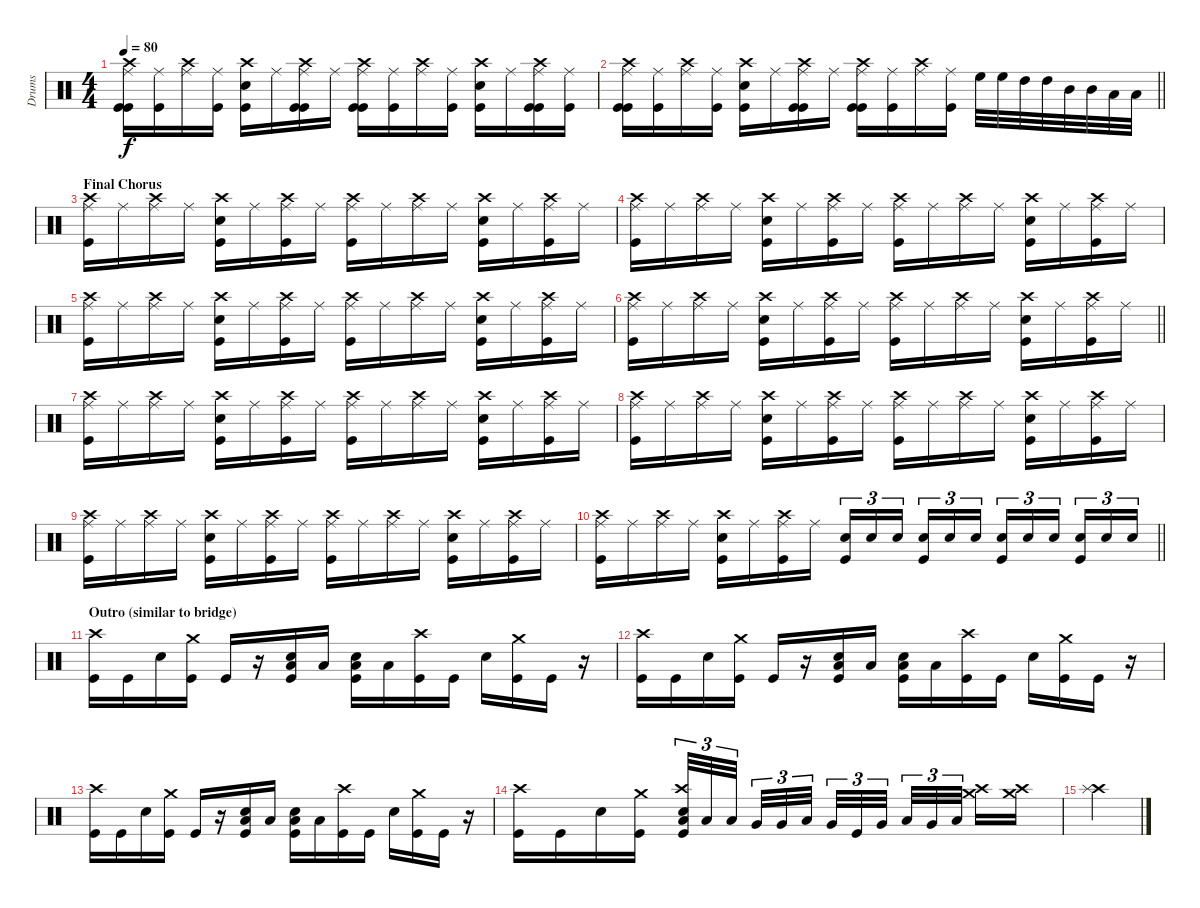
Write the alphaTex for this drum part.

\track ("Drums" "Drums") {instrument percussion}
\staff {score}
\articulation defaults
\ts (4 4)
\tempo 80
\clef neutral
\ks c
("Kick (hit)" "Ride (middle)" "Crash high (hit)" "Kick (hit)").16{dy f} ("Ride (middle)" "Kick (hit)").16 ("Ride (middle)" "Crash high (hit)").16 ("Ride (middle)" "Kick (hit)").16 ("Kick (hit)" "Crash high (hit)" "Snare (hit) 2").16 "Ride (middle)".16 ("Kick (hit)" "Ride (middle)" "Crash high (hit)" "Kick (hit)").16 "Ride (middle)".16 ("Kick (hit)" "Ride (middle)" "Crash high (hit)" "Kick (hit)").16 ("Ride (middle)" "Kick (hit)").16 ("Ride (middle)" "Crash high (hit)").16 ("Ride (middle)" "Kick (hit)").16 ("Kick (hit)" "Crash high (hit)" "Snare (hit) 2").16 "Ride (middle)".16 ("Kick (hit)" "Ride (middle)" "Crash high (hit)" "Kick (hit)").16 ("Ride (middle)" "Kick (hit)").16 |
\barLineRight lightlight
("Kick (hit)" "Ride (middle)" "Crash high (hit)" "Kick (hit)").16 ("Ride (middle)" "Kick (hit)").16 ("Ride (middle)" "Crash high (hit)").16 ("Ride (middle)" "Kick (hit)").16 ("Kick (hit)" "Crash high (hit)" "Snare (hit) 2").16 "Ride (middle)".16 ("Kick (hit)" "Ride (middle)" "Crash high (hit)" "Kick (hit)").16 "Ride (middle)".16 ("Kick (hit)" "Ride (middle)" "Crash high (hit)" "Kick (hit)").16 ("Ride (middle)" "Kick (hit)").16 ("Ride (middle)" "Crash high (hit)").16 ("Ride (middle)" "Kick (hit)").16 "High Floor Tom (hit)".32 "High Floor Tom (hit)".32 "High Tom (hit)".32 "High Tom (hit)".32 "Mid Tom (hit)".32 "Mid Tom (hit)".32 "Low Tom (hit)".32 "Low Tom (hit)".32 |
\section ("" "Final Chorus")
("Kick (hit)" "Ride (middle)" "Crash high (hit)").16 "Ride (middle)".16 ("Ride (middle)" "Crash high (hit)").16 "Ride (middle)".16 ("Kick (hit)" "Crash high (hit)" "Snare (hit) 2").16 "Ride (middle)".16 ("Kick (hit)" "Ride (middle)" "Crash high (hit)").16 "Ride (middle)".16 ("Kick (hit)" "Ride (middle)" "Crash high (hit)").16 "Ride (middle)".16 ("Ride (middle)" "Crash high (hit)").16 "Ride (middle)".16 ("Kick (hit)" "Crash high (hit)" "Snare (hit) 2").16 "Ride (middle)".16 ("Kick (hit)" "Ride (middle)" "Crash high (hit)").16 "Ride (middle)".16 |
("Kick (hit)" "Ride (middle)" "Crash high (hit)").16 "Ride (middle)".16 ("Ride (middle)" "Crash high (hit)").16 "Ride (middle)".16 ("Kick (hit)" "Crash high (hit)" "Snare (hit) 2").16 "Ride (middle)".16 ("Kick (hit)" "Ride (middle)" "Crash high (hit)").16 "Ride (middle)".16 ("Kick (hit)" "Ride (middle)" "Crash high (hit)").16 "Ride (middle)".16 ("Ride (middle)" "Crash high (hit)").16 "Ride (middle)".16 ("Kick (hit)" "Crash high (hit)" "Snare (hit) 2").16 "Ride (middle)".16 ("Kick (hit)" "Ride (middle)" "Crash high (hit)").16 "Ride (middle)".16 |
("Kick (hit)" "Ride (middle)" "Crash high (hit)").16 "Ride (middle)".16 ("Ride (middle)" "Crash high (hit)").16 "Ride (middle)".16 ("Kick (hit)" "Crash high (hit)" "Snare (hit) 2").16 "Ride (middle)".16 ("Kick (hit)" "Ride (middle)" "Crash high (hit)").16 "Ride (middle)".16 ("Kick (hit)" "Ride (middle)" "Crash high (hit)").16 "Ride (middle)".16 ("Ride (middle)" "Crash high (hit)").16 "Ride (middle)".16 ("Kick (hit)" "Crash high (hit)" "Snare (hit) 2").16 "Ride (middle)".16 ("Kick (hit)" "Ride (middle)" "Crash high (hit)").16 "Ride (middle)".16 |
\barLineRight lightlight
("Kick (hit)" "Ride (middle)" "Crash high (hit)").16 "Ride (middle)".16 ("Ride (middle)" "Crash high (hit)").16 "Ride (middle)".16 ("Kick (hit)" "Crash high (hit)" "Snare (hit) 2").16 "Ride (middle)".16 ("Kick (hit)" "Ride (middle)" "Crash high (hit)").16 "Ride (middle)".16 ("Kick (hit)" "Ride (middle)" "Crash high (hit)").16 "Ride (middle)".16 ("Ride (middle)" "Crash high (hit)").16 "Ride (middle)".16 ("Kick (hit)" "Crash high (hit)" "Snare (hit) 2").16 "Ride (middle)".16 ("Kick (hit)" "Ride (middle)" "Crash high (hit)").16 "Ride (middle)".16 |
("Kick (hit)" "Ride (middle)" "Crash high (hit)").16 "Ride (middle)".16 ("Ride (middle)" "Crash high (hit)").16 "Ride (middle)".16 ("Kick (hit)" "Crash high (hit)" "Snare (hit) 2").16 "Ride (middle)".16 ("Kick (hit)" "Ride (middle)" "Crash high (hit)").16 "Ride (middle)".16 ("Kick (hit)" "Ride (middle)" "Crash high (hit)").16 "Ride (middle)".16 ("Ride (middle)" "Crash high (hit)").16 "Ride (middle)".16 ("Kick (hit)" "Crash high (hit)" "Snare (hit) 2").16 "Ride (middle)".16 ("Kick (hit)" "Ride (middle)" "Crash high (hit)").16 "Ride (middle)".16 |
("Kick (hit)" "Ride (middle)" "Crash high (hit)").16 "Ride (middle)".16 ("Ride (middle)" "Crash high (hit)").16 "Ride (middle)".16 ("Kick (hit)" "Crash high (hit)" "Snare (hit) 2").16 "Ride (middle)".16 ("Kick (hit)" "Ride (middle)" "Crash high (hit)").16 "Ride (middle)".16 ("Kick (hit)" "Ride (middle)" "Crash high (hit)").16 "Ride (middle)".16 ("Ride (middle)" "Crash high (hit)").16 "Ride (middle)".16 ("Kick (hit)" "Crash high (hit)" "Snare (hit) 2").16 "Ride (middle)".16 ("Kick (hit)" "Ride (middle)" "Crash high (hit)").16 "Ride (middle)".16 |
("Kick (hit)" "Ride (middle)" "Crash high (hit)").16 "Ride (middle)".16 ("Ride (middle)" "Crash high (hit)").16 "Ride (middle)".16 ("Kick (hit)" "Crash high (hit)" "Snare (hit) 2").16 "Ride (middle)".16 ("Kick (hit)" "Ride (middle)" "Crash high (hit)").16 "Ride (middle)".16 ("Kick (hit)" "Ride (middle)" "Crash high (hit)").16 "Ride (middle)".16 ("Ride (middle)" "Crash high (hit)").16 "Ride (middle)".16 ("Kick (hit)" "Crash high (hit)" "Snare (hit) 2").16 "Ride (middle)".16 ("Kick (hit)" "Ride (middle)" "Crash high (hit)").16 "Ride (middle)".16 |
\barLineRight lightlight
("Kick (hit)" "Ride (middle)" "Crash high (hit)").16 "Ride (middle)".16 ("Ride (middle)" "Crash high (hit)").16 "Ride (middle)".16 ("Kick (hit)" "Crash high (hit)" "Snare (hit) 2").16 "Ride (middle)".16 ("Kick (hit)" "Ride (middle)" "Crash high (hit)").16 "Ride (middle)".16 ("Kick (hit)" "Snare (hit) 2").16{tu (3 2)} "Snare (hit) 2".16{tu (3 2)} "Snare (hit) 2".16{tu (3 2) beam splitsecondary} ("Kick (hit)" "Snare (hit) 2").16{tu (3 2)} "Snare (hit) 2".16{tu (3 2)} "Snare (hit) 2".16{tu (3 2)} ("Kick (hit)" "Snare (hit) 2").16{tu (3 2)} "Snare (hit) 2".16{tu (3 2)} "Snare (hit) 2".16{tu (3 2) beam splitsecondary} ("Kick (hit)" "Snare (hit) 2").16{tu (3 2)} "Snare (hit) 2".16{tu (3 2)} "Snare (hit) 2".16{tu (3 2)} |
\section ("" "Outro (similar to bridge)")
("Kick (hit)" "Crash high (hit)").16 "Kick (hit)".16 "Snare (hit) 2".16 ("Kick (hit)" "Crash medium (hit)").16 "Kick (hit)".16 r.16 ("Kick (hit)" "Snare (hit) 2" "Low Tom (hit)").16 "Low Tom (hit)".16 ("Kick (hit)" "Snare (hit) 2" "Low Tom (hit)").16 "Low Tom (hit)".16 ("Kick (hit)" "Crash high (hit)").16 "Kick (hit)".16 "Snare (hit) 2".16 ("Kick (hit)" "Crash medium (hit)").16 "Kick (hit)".16 r.16 |
("Kick (hit)" "Crash high (hit)").16 "Kick (hit)".16 "Snare (hit) 2".16 ("Kick (hit)" "Crash medium (hit)").16 "Kick (hit)".16 r.16 ("Kick (hit)" "Snare (hit) 2" "Low Tom (hit)").16 "Low Tom (hit)".16 ("Kick (hit)" "Snare (hit) 2" "Low Tom (hit)").16 "Low Tom (hit)".16 ("Kick (hit)" "Crash high (hit)").16 "Kick (hit)".16 "Snare (hit) 2".16 ("Kick (hit)" "Crash medium (hit)").16 "Kick (hit)".16 r.16 |
("Kick (hit)" "Crash high (hit)").16 "Kick (hit)".16 "Snare (hit) 2".16 ("Kick (hit)" "Crash medium (hit)").16 "Kick (hit)".16 r.16 ("Kick (hit)" "Snare (hit) 2" "Low Tom (hit)").16 "Low Tom (hit)".16 ("Kick (hit)" "Snare (hit) 2" "Low Tom (hit)").16 "Low Tom (hit)".16 ("Kick (hit)" "Crash high (hit)").16 "Kick (hit)".16 "Snare (hit) 2".16 ("Kick (hit)" "Crash medium (hit)").16 "Kick (hit)".16 r.16 |
("Kick (hit)" "Crash high (hit)").16 "Kick (hit)".16 "Snare (hit) 2".16 ("Kick (hit)" "Crash medium (hit)").16 ("Crash high (hit)" "Snare (hit) 2" "Low Tom (hit)" "Kick (hit)").32{tu (3 2)} "Low Tom (hit)".32{tu (3 2)} "Low Tom (hit)".32{tu (3 2) beam splitsecondary} "Very Low Tom (hit)".32{tu (3 2)} "Very Low Tom (hit)".32{tu (3 2)} "Low Floor Tom (hit)".32{tu (3 2) beam splitsecondary} "Very Low Tom (hit)".32{tu (3 2)} "Kick (hit)".32{tu (3 2)} "Very Low Tom (hit)".32{tu (3 2) beam splitsecondary} "Low Tom (hit)".32{tu (3 2)} "Very Low Tom (hit)".32{tu (3 2)} "Low Floor Tom (hit)".32{tu (3 2)} ("Crash high (hit)" "Crash medium (hit)").16 ("Crash high (hit)" "Crash medium (hit)").16 |
("Crash high (hit)" "Splash (hit)").2
